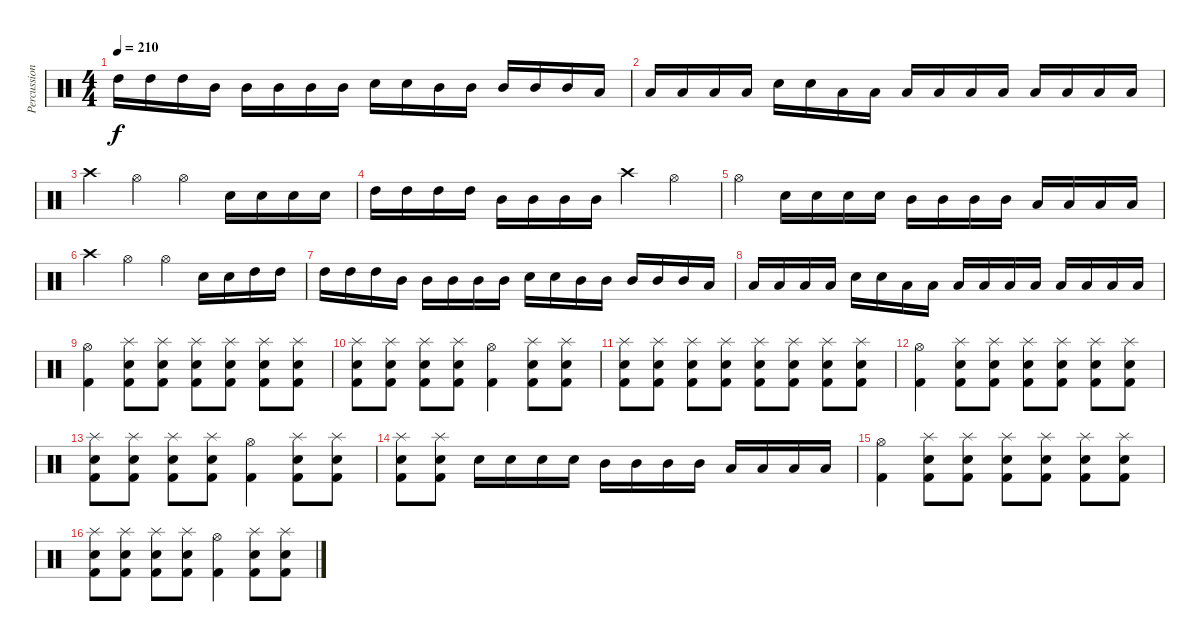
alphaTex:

\track ("Percussion" "Percussion") {instrument percussion}
\staff {score}
\articulation defaults
\ts (4 4)
\tempo 210
\clef neutral
\ks c "High Tom (hit)".16{dy f} "High Tom (hit)".16 "High Tom (hit)".16 "Mid Tom (hit)".16 "Mid Tom (hit)".16 "Mid Tom (hit)".16 "Mid Tom (hit)".16 "Mid Tom (hit)".16 "Snare (hit) 2".16 "Snare (hit) 2".16 "Mid Tom (hit)".16 "Mid Tom (hit)".16 "Mid Tom (hit)".16 "Mid Tom (hit)".16 "Mid Tom (hit)".16 "Low Tom (hit)".16
|
"Low Tom (hit)".16 "Low Tom (hit)".16 "Low Tom (hit)".16 "Low Tom (hit)".16 "Snare (hit) 2".16 "Snare (hit) 2".16 "Low Tom (hit)".16 "Low Tom (hit)".16 "Low Tom (hit)".16 "Low Tom (hit)".16 "Low Tom (hit)".16 "Low Floor Tom (hit)".16 "Low Floor Tom (hit)".16 "Low Floor Tom (hit)".16 "Low Floor Tom (hit)".16 "Low Floor Tom (hit)".16 |
"Crash high (hit)".4 "Hi-Hat (open)".4 "Hi-Hat (open)".4 "Snare (hit) 2".16 "Snare (hit) 2".16 "Snare (hit) 2".16 "Snare (hit) 2".16 |
"High Tom (hit)".16 "High Tom (hit)".16 "High Tom (hit)".16 "High Tom (hit)".16 "Mid Tom (hit)".16 "Mid Tom (hit)".16 "Mid Tom (hit)".16 "Mid Tom (hit)".16 "Crash high (hit)".4 "Hi-Hat (open)".4 |
"Hi-Hat (open)".4 "Snare (hit) 2".16 "Snare (hit) 2".16 "Snare (hit) 2".16 "Snare (hit) 2".16 "Mid Tom (hit)".16 "Mid Tom (hit)".16 "Mid Tom (hit)".16 "Mid Tom (hit)".16 "Low Tom (hit)".16 "Low Tom (hit)".16 "Low Tom (hit)".16 "Low Tom (hit)".16 |
"Crash high (hit)".4 "Hi-Hat (open)".4 "Hi-Hat (open)".4 "Snare (hit) 2".16 "Snare (hit) 2".16 "High Tom (hit)".16 "High Tom (hit)".16 |
"High Tom (hit)".16 "High Tom (hit)".16 "High Tom (hit)".16 "Mid Tom (hit)".16 "Mid Tom (hit)".16 "Mid Tom (hit)".16 "Mid Tom (hit)".16 "Mid Tom (hit)".16 "Snare (hit) 2".16 "Snare (hit) 2".16 "Mid Tom (hit)".16 "Mid Tom (hit)".16 "Mid Tom (hit)".16 "Mid Tom (hit)".16 "Mid Tom (hit)".16 "Low Tom (hit)".16 |
"Low Tom (hit)".16 "Low Tom (hit)".16 "Low Tom (hit)".16 "Low Tom (hit)".16 "Snare (hit) 2".16 "Snare (hit) 2".16 "Low Tom (hit)".16 "Low Tom (hit)".16 "Low Tom (hit)".16 "Low Tom (hit)".16 "Low Tom (hit)".16 "Low Floor Tom (hit)".16 "Low Floor Tom (hit)".16 "Low Floor Tom (hit)".16 "Low Floor Tom (hit)".16 "Low Floor Tom (hit)".16 |
("Hi-Hat (open)" "Kick (hit) 2").4 ("Splash (hit)" "Snare (hit) 2" "Kick (hit) 2").8 ("Splash (hit)" "Snare (hit) 2" "Kick (hit) 2").8 ("Splash (hit)" "Snare (hit) 2" "Kick (hit) 2").8 ("Splash (hit)" "Snare (hit) 2" "Kick (hit) 2").8 ("Splash (hit)" "Snare (hit) 2" "Kick (hit) 2").8 ("Splash (hit)" "Snare (hit) 2" "Kick (hit) 2").8 |
("Splash (hit)" "Snare (hit) 2" "Kick (hit) 2").8 ("Splash (hit)" "Snare (hit) 2" "Kick (hit) 2").8 ("Splash (hit)" "Snare (hit) 2" "Kick (hit) 2").8 ("Splash (hit)" "Snare (hit) 2" "Kick (hit) 2").8 ("Hi-Hat (open)" "Kick (hit) 2").4 ("Splash (hit)" "Snare (hit) 2" "Kick (hit) 2").8 ("Splash (hit)" "Snare (hit) 2" "Kick (hit) 2").8 |
("Splash (hit)" "Snare (hit) 2" "Kick (hit) 2").8 ("Splash (hit)" "Snare (hit) 2" "Kick (hit) 2").8 ("Splash (hit)" "Snare (hit) 2" "Kick (hit) 2").8 ("Splash (hit)" "Snare (hit) 2" "Kick (hit) 2").8 ("Splash (hit)" "Snare (hit) 2" "Kick (hit) 2").8 ("Splash (hit)" "Snare (hit) 2" "Kick (hit) 2").8 ("Splash (hit)" "Snare (hit) 2" "Kick (hit) 2").8 ("Splash (hit)" "Snare (hit) 2" "Kick (hit) 2").8 |
("Hi-Hat (open)" "Kick (hit) 2").4 ("Splash (hit)" "Snare (hit) 2" "Kick (hit) 2").8 ("Splash (hit)" "Snare (hit) 2" "Kick (hit) 2").8 ("Splash (hit)" "Snare (hit) 2" "Kick (hit) 2").8 ("Splash (hit)" "Snare (hit) 2" "Kick (hit) 2").8 ("Splash (hit)" "Snare (hit) 2" "Kick (hit) 2").8 ("Splash (hit)" "Snare (hit) 2" "Kick (hit) 2").8 |
("Splash (hit)" "Snare (hit) 2" "Kick (hit) 2").8 ("Splash (hit)" "Snare (hit) 2" "Kick (hit) 2").8 ("Splash (hit)" "Snare (hit) 2" "Kick (hit) 2").8 ("Splash (hit)" "Snare (hit) 2" "Kick (hit) 2").8 ("Hi-Hat (open)" "Kick (hit) 2").4 ("Splash (hit)" "Snare (hit) 2" "Kick (hit) 2").8 ("Splash (hit)" "Snare (hit) 2" "Kick (hit) 2").8 |
("Splash (hit)" "Snare (hit) 2" "Kick (hit) 2").8 ("Splash (hit)" "Snare (hit) 2" "Kick (hit) 2").8 "Snare (hit) 2".16 "Snare (hit) 2".16 "Snare (hit) 2".16 "Snare (hit) 2".16 "Mid Tom (hit)".16 "Mid Tom (hit)".16 "Mid Tom (hit)".16 "Mid Tom (hit)".16 "Low Tom (hit)".16 "Low Tom (hit)".16 "Low Tom (hit)".16 "Low Tom (hit)".16 |
("Hi-Hat (open)" "Kick (hit) 2").4 ("Splash (hit)" "Snare (hit) 2" "Kick (hit) 2").8 ("Splash (hit)" "Snare (hit) 2" "Kick (hit) 2").8 ("Splash (hit)" "Snare (hit) 2" "Kick (hit) 2").8 ("Splash (hit)" "Snare (hit) 2" "Kick (hit) 2").8 ("Splash (hit)" "Snare (hit) 2" "Kick (hit) 2").8 ("Splash (hit)" "Snare (hit) 2" "Kick (hit) 2").8 |
("Splash (hit)" "Snare (hit) 2" "Kick (hit) 2").8 ("Splash (hit)" "Snare (hit) 2" "Kick (hit) 2").8 ("Splash (hit)" "Snare (hit) 2" "Kick (hit) 2").8 ("Splash (hit)" "Snare (hit) 2" "Kick (hit) 2").8 ("Hi-Hat (open)" "Kick (hit) 2").4 ("Splash (hit)" "Snare (hit) 2" "Kick (hit) 2").8 ("Splash (hit)" "Snare (hit) 2" "Kick (hit) 2").8
